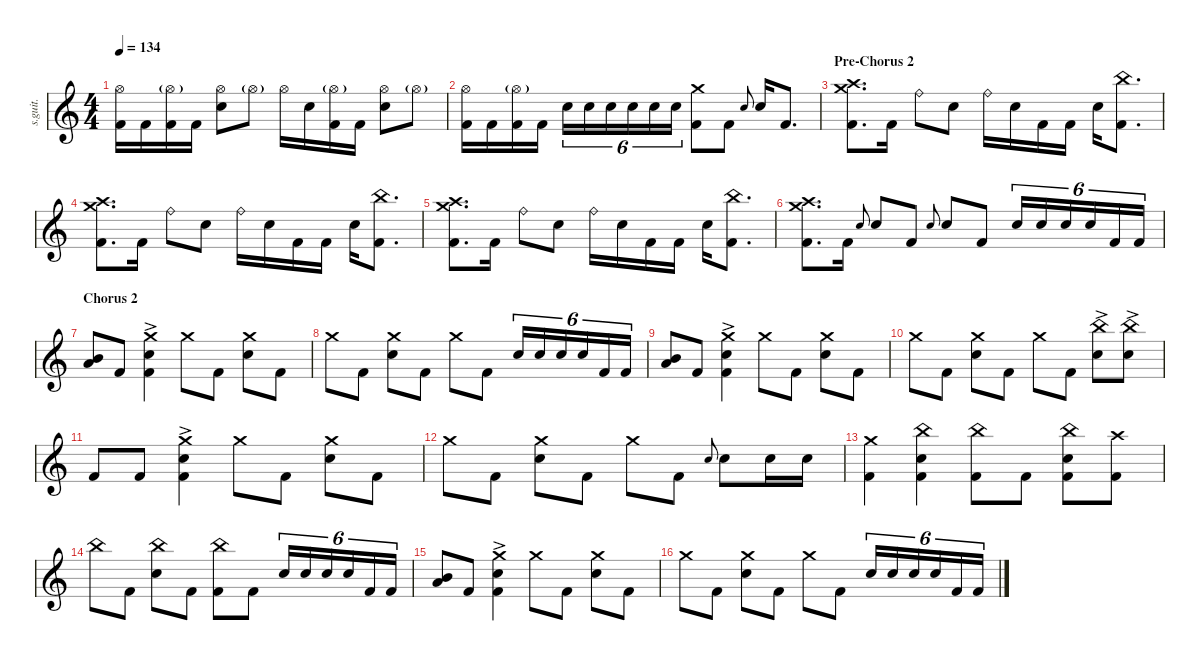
\defaultSystemsLayout 4
\hideDynamics
\bracketExtendMode nobrackets
\track ("Joey Jordison RIP" "s.guit.") {instrument percussion}
\staff {score}
\articulation defaults
\ts (4 4)
\tempo 134
\clef g2
\ks c
("Hi-Hat (open)" "Kick (hit) 2").16{dy fff} "Kick (hit) 2".16 ("Hi-Hat (open)"{g} "Kick (hit) 2").16 "Kick (hit) 2".16 ("Hi-Hat (open)" "Snare (hit) 2").8 "Hi-Hat (open)"{g}.8 "Hi-Hat (open)".16 "Snare (hit) 2".16 ("Hi-Hat (open)"{g} "Kick (hit) 2").16 "Kick (hit) 2".16 ("Hi-Hat (open)" "Snare (hit) 2").8 "Hi-Hat (open)"{g}.8 |
("Hi-Hat (open)" "Kick (hit) 2").16 "Kick (hit) 2".16 ("Hi-Hat (open)"{g} "Kick (hit) 2").16 "Kick (hit) 2".16 "Snare (hit) 2".16{tu (6 4)} "Snare (hit) 2".16{tu (6 4)} "Snare (hit) 2".16{tu (6 4)} "Snare (hit) 2".16{tu (6 4)} "Snare (hit) 2".16{tu (6 4)} "Snare (hit) 2".16{tu (6 4)} ("Crash medium (hit)" "Kick (hit) 2").8 "Kick (hit) 2".8 "Snare (hit) 2".8{gr onbeat} "Snare (hit) 2".16 "Kick (hit) 2".8{d} |
\section ("" "Pre-Chorus 2")
("Crash high (hit)" "Kick (hit) 2" "Crash medium (hit)").8{d} "Kick (hit) 2".16 "Ride (bell)".8 "Snare (hit) 2".8 "Ride (bell)".16 "Snare (hit) 2".16 "Kick (hit) 2".16 "Kick (hit) 2".16 "Snare (hit) 2".16 ("China (hit)" "Kick (hit) 2").8{d} |
("Crash medium (hit)" "Kick (hit) 2" "Crash high (hit)").8{d} "Kick (hit) 2".16 "Ride (bell)".8 "Snare (hit) 2".8 "Ride (bell)".16 "Snare (hit) 2".16 "Kick (hit) 2".16 "Kick (hit) 2".16 "Snare (hit) 2".16 ("China (hit)" "Kick (hit) 2").8{d} |
("Crash medium (hit)" "Kick (hit) 2" "Crash high (hit)").8{d} "Kick (hit) 2".16 "Ride (bell)".8 "Snare (hit) 2".8 "Ride (bell)".16 "Snare (hit) 2".16 "Kick (hit) 2".16 "Kick (hit) 2".16 "Snare (hit) 2".16 ("China (hit)" "Kick (hit) 2").8{d} |
("Crash medium (hit)" "Kick (hit) 2" "Crash high (hit)").8{d} "Kick (hit) 2".16 "Snare (hit) 2".8{gr onbeat} "Snare (hit) 2".8 "Kick (hit) 2".8 "Snare (hit) 2".8{gr onbeat} "Snare (hit) 2".8 "Kick (hit) 2".8 "Snare (hit) 2".16{tu (6 4)} "Snare (hit) 2".16{tu (6 4)} "Snare (hit) 2".16{tu (6 4)} "Snare (hit) 2".16{tu (6 4)} "Kick (hit) 2".16{tu (6 4)} "Kick (hit) 2".16{tu (6 4)} |
\section ("" "Chorus 2")
("Mid Tom (hit)" "Low Floor Tom (hit)").8 "Kick (hit) 2".8 ("Crash medium (hit)"{ac} "Kick (hit) 2"{ac} "Snare (hit) 2"{ac}).4 "Crash medium (hit)".8 "Kick (hit) 2".8 ("Crash medium (hit)" "Snare (hit) 2").8 "Kick (hit) 2".8 |
"Crash medium (hit)".8 "Kick (hit) 2".8 ("Crash medium (hit)" "Snare (hit) 2").8 "Kick (hit) 2".8 "Crash medium (hit)".8 "Kick (hit) 2".8 "Snare (hit) 2".16{tu (6 4)} "Snare (hit) 2".16{tu (6 4)} "Snare (hit) 2".16{tu (6 4)} "Snare (hit) 2".16{tu (6 4)} "Kick (hit) 2".16{tu (6 4)} "Kick (hit) 2".16{tu (6 4)} |
("Mid Tom (hit)" "Low Floor Tom (hit)").8 "Kick (hit) 2".8 ("Crash medium (hit)"{ac} "Kick (hit) 2"{ac} "Snare (hit) 2"{ac}).4 "Crash medium (hit)".8 "Kick (hit) 2".8 ("Crash medium (hit)" "Snare (hit) 2").8 "Kick (hit) 2".8 |
"Crash medium (hit)".8 "Kick (hit) 2".8 ("Crash medium (hit)" "Snare (hit) 2").8 "Kick (hit) 2".8 "Crash medium (hit)".8 "Kick (hit) 2".8 ("China (hit)"{ac} "Snare (hit) 2"{ac}).8 ("China (hit)"{ac} "Snare (hit) 2"{ac}).8 |
"Kick (hit) 2".8 "Kick (hit) 2".8 ("Crash medium (hit)"{ac} "Kick (hit) 2"{ac} "Snare (hit) 2"{ac}).4 "Crash medium (hit)".8 "Kick (hit) 2".8 ("Crash medium (hit)" "Snare (hit) 2").8 "Kick (hit) 2".8 |
"Crash medium (hit)".8 "Kick (hit) 2".8 ("Crash medium (hit)" "Snare (hit) 2").8 "Kick (hit) 2".8 "Crash medium (hit)".8 "Kick (hit) 2".8 "Snare (hit) 2".8{gr onbeat} "Snare (hit) 2".8 "Snare (hit) 2".16 "Snare (hit) 2".16 |
("Crash medium (hit)" "Kick (hit) 2").4 ("China (hit)" "Kick (hit) 2" "Snare (hit) 2").4 ("China (hit)" "Kick (hit) 2").8 "Kick (hit) 2".8 ("China (hit)" "Kick (hit) 2" "Snare (hit) 2").8 ("Crash high (hit)" "Kick (hit) 2").8 |
"China (hit)".8 "Kick (hit) 2".8 ("China (hit)" "Snare (hit) 2").8 "Kick (hit) 2".8 ("China (hit)" "Kick (hit) 2").8 "Kick (hit) 2".8 "Snare (hit) 2".16{tu (6 4)} "Snare (hit) 2".16{tu (6 4)} "Snare (hit) 2".16{tu (6 4)} "Snare (hit) 2".16{tu (6 4)} "Kick (hit) 2".16{tu (6 4)} "Kick (hit) 2".16{tu (6 4)} |
("Mid Tom (hit)" "Low Floor Tom (hit)").8 "Kick (hit) 2".8 ("Crash medium (hit)"{ac} "Kick (hit) 2"{ac} "Snare (hit) 2"{ac}).4 "Crash medium (hit)".8 "Kick (hit) 2".8 ("Crash medium (hit)" "Snare (hit) 2").8 "Kick (hit) 2".8 |
"Crash medium (hit)".8 "Kick (hit) 2".8 ("Crash medium (hit)" "Snare (hit) 2").8 "Kick (hit) 2".8 "Crash medium (hit)".8 "Kick (hit) 2".8 "Snare (hit) 2".16{tu (6 4)} "Snare (hit) 2".16{tu (6 4)} "Snare (hit) 2".16{tu (6 4)} "Snare (hit) 2".16{tu (6 4)} "Kick (hit) 2".16{tu (6 4)} "Kick (hit) 2".16{tu (6 4)}
